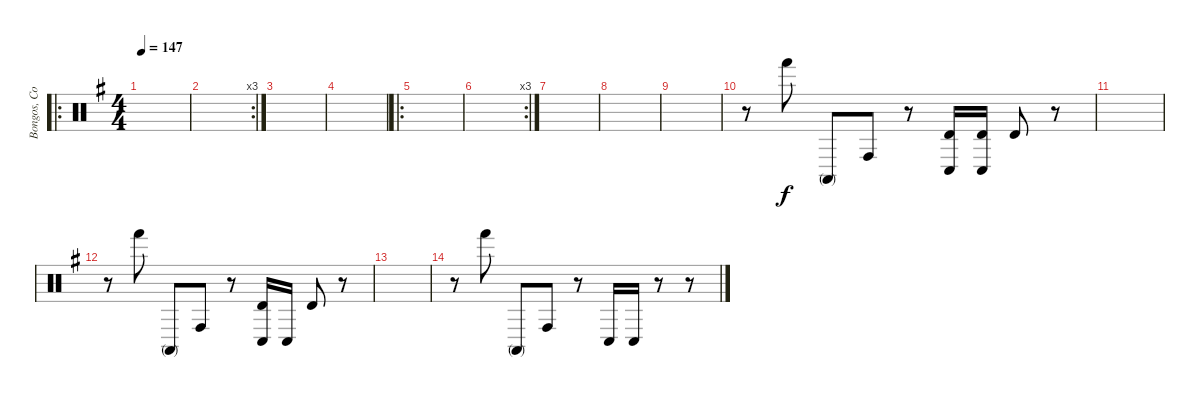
\track ("Bongos, Congos, Timbales" "Bongos, Co") {instrument percussion}
\staff {score}
\articulation defaults
\ro
\ts (4 4)
\tempo 147
\clef neutral
\ks g
|
\rc 3
|
|
|
\ro
|
\rc 3
|
|
|
|
r.8 "Hand (hit)".8 "Conga high (mute)".8 "Conga high (hit)".8 r.8 ("Timbale high (hit)" "Conga low (hit)").16 ("Timbale high (hit)" "Conga low (hit)").16 "Timbale high (hit)".8 r.8 |
|
r.8 "Hand (hit)".8 "Conga high (mute)".8 "Conga high (hit)".8 r.8 ("Timbale high (hit)" "Conga low (hit)").16 "Conga low (hit)".16 "Timbale high (hit)".8 r.8 |
|
r.8 "Hand (hit)".8 "Conga high (mute)".8 "Conga high (hit)".8 r.8 "Conga low (hit)".16 "Conga low (hit)".16 r.8 r.8
